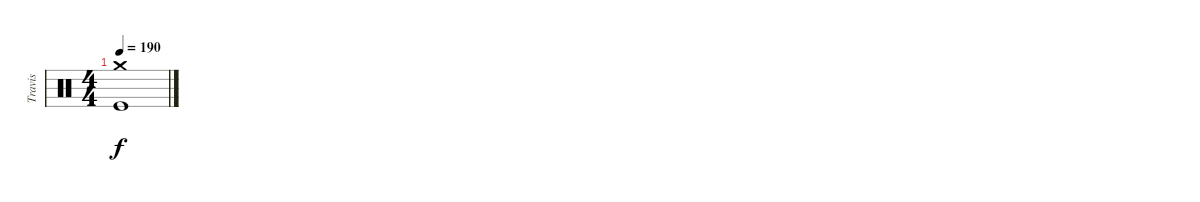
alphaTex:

\track ("Travis" "Travis") {instrument percussion}
\staff {score}
\articulation defaults
\ts (4 4)
\tempo 190
\clef neutral
\ks c
("Crash medium (hit)" "Kick (hit)").1{dy f}
